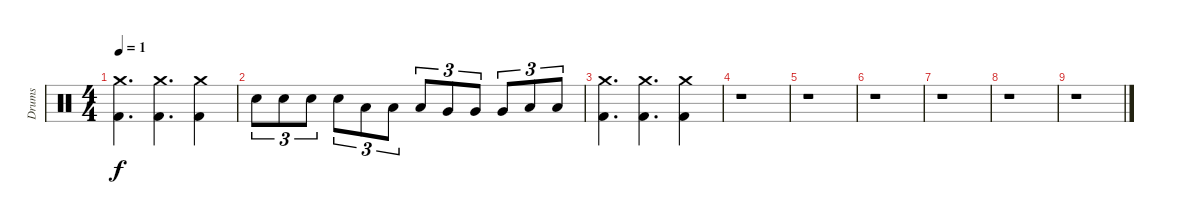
\track ("Drums" "Drums") {instrument percussion}
\staff {score}
\articulation defaults
\ts (4 4)
\tempo 1
\clef neutral
\ks c
("Kick (hit) 2" "Crash medium (hit)").4{d dy f} ("Crash medium (hit)" "Kick (hit) 2").4{d} ("Crash medium (hit)" "Kick (hit) 2").4 |
"Snare (hit) 2".8{tu (3 2)} "Snare (hit) 2".8{tu (3 2)} "Snare (hit) 2".8{tu (3 2)} "Snare (hit) 2".8{tu (3 2)} "Low Tom (hit)".8{tu (3 2)} "Low Tom (hit)".8{tu (3 2)} "Low Tom (hit)".8{tu (3 2)} "Very Low Tom (hit)".8{tu (3 2)} "Very Low Tom (hit)".8{tu (3 2)} "Very Low Tom (hit)".8{tu (3 2)} "Low Floor Tom (hit)".8{tu (3 2)} "Low Floor Tom (hit)".8{tu (3 2)} |
("Kick (hit) 2" "Crash medium (hit)").4{d} ("Crash medium (hit)" "Kick (hit) 2").4{d} ("Crash medium (hit)" "Kick (hit) 2").4 |
r.1 |
r.1 |
r.1 |
r.1 |
r.1 |
r.1
